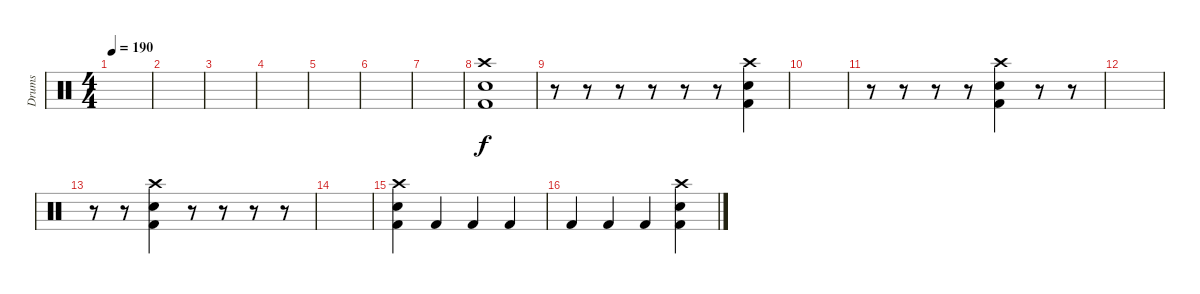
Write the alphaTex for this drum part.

\track ("Drums" "Drums") {instrument percussion}
\staff {score}
\articulation defaults
\ts (4 4)
\tempo 190
\tempo 150
\tempo 190
\clef neutral
\ks c
|
|
|
|
|
|
|
("Crash high (hit)" "Snare (hit) 2" "Kick (hit) 2").1 |
r.8 r.8 r.8 r.8 r.8 r.8 ("Crash high (hit)" "Snare (hit) 2" "Kick (hit) 2").4 |
|
r.8 r.8 r.8 r.8 ("Crash high (hit)" "Snare (hit) 2" "Kick (hit) 2").4 r.8 r.8 |
|
r.8 r.8 ("Crash high (hit)" "Snare (hit) 2" "Kick (hit) 2").4 r.8 r.8 r.8 r.8 |
|
("Crash high (hit)" "Snare (hit) 2" "Kick (hit) 2").4 "Kick (hit) 2".4 "Kick (hit) 2".4 "Kick (hit) 2".4 |
"Kick (hit) 2".4 "Kick (hit) 2".4 "Kick (hit) 2".4 ("Crash high (hit)" "Snare (hit) 2" "Kick (hit) 2").4
